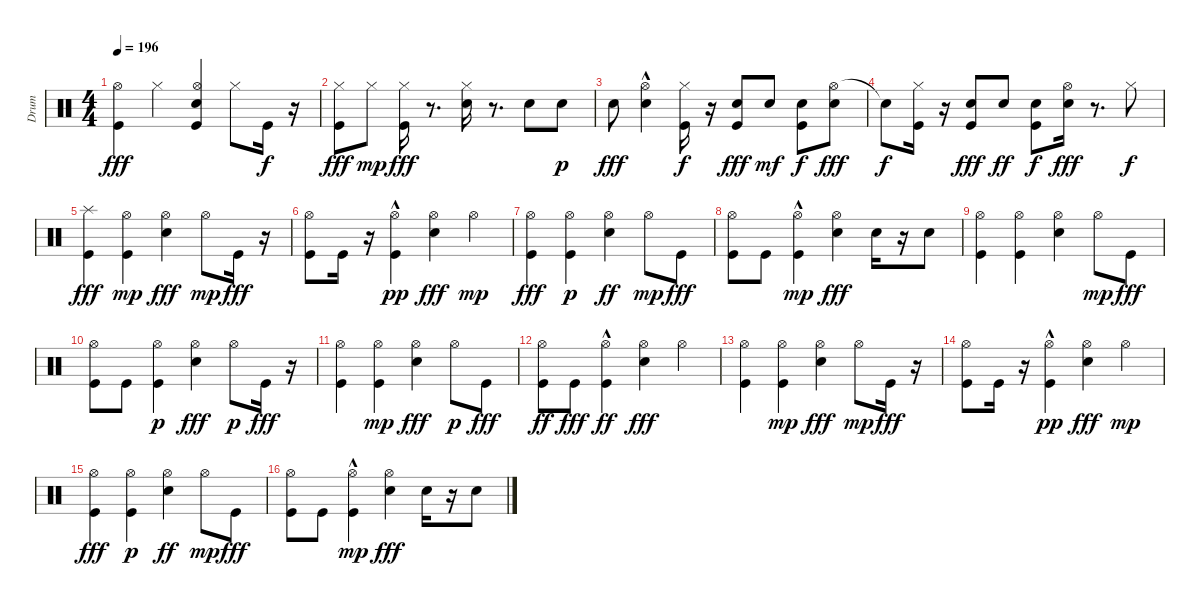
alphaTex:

\track ("Drum" "Drum") {instrument percussion}
\staff {score}
\articulation defaults
\ts (4 4)
\tempo 196
\clef neutral
\ks c
("Kick (hit)" "Hi-Hat (open)").4{dy fff} "Hi-Hat (closed)".4 ("Kick (hit)" "Hi-Hat (open)" "Snare (hit) 2").4 "Hi-Hat (closed)".8 "Kick (hit)".16{dy f} r.16 |
("Kick (hit)" "Hi-Hat (closed)").8{dy fff} "Hi-Hat (closed)".8{dy mp} ("Kick (hit)" "Hi-Hat (closed)").16{dy fff} r.8{d} ("Snare (hit) 2" "Hi-Hat (closed)").16 r.8{d} "Snare (hit) 2".8 "Snare (hit) 2".8{dy p} |
"Snare (hit) 2".8{dy fff} ("Hi-Hat (open)" "Snare (hit) 2"{hac}).4 ("Hi-Hat (closed)" "Kick (hit)").16{dy f} r.16 ("Kick (hit)" "Snare (hit) 2").8{dy fff} "Snare (hit) 2".8{dy mf} ("Kick (hit)" "Snare (hit) 2").8{dy f} ("Hi-Hat (open)" "Snare (hit) 2").8{dy fff} |
"Snare (hit)"{t}.8{dy f} ("Hi-Hat (closed)" "Kick (hit)").16 r.16 ("Kick (hit)" "Snare (hit) 2").8{dy fff} "Snare (hit) 2".8{dy ff} ("Kick (hit)" "Snare (hit) 2").8{dy f} ("Hi-Hat (open)" "Snare (hit) 2").16{dy fff} r.8{d} "Hi-Hat (closed)".8{dy f} |
("Splash (hit)" "Kick (hit)").4{dy fff} ("Kick (hit)" "Hi-Hat (open)").4{dy mp} ("Hi-Hat (open)" "Snare (hit) 2").4{dy fff} "Hi-Hat (open)".8{dy mp} "Kick (hit)".16{dy fff} r.16 |
("Kick (hit)" "Hi-Hat (open)").8 "Kick (hit)".16 r.16 ("Kick (hit)"{hac} "Hi-Hat (open)").4{dy pp} ("Hi-Hat (open)" "Snare (hit) 2").4{dy fff} "Hi-Hat (open)".4{dy mp} |
("Kick (hit)" "Hi-Hat (open)").4{dy fff} ("Kick (hit)" "Hi-Hat (open)").4{dy p} ("Snare (hit) 2" "Hi-Hat (open)").4{dy ff} "Hi-Hat (open)".8{dy mp} "Kick (hit)".8{dy fff} |
("Kick (hit)" "Hi-Hat (open)").8 "Kick (hit)".8 ("Kick (hit)"{hac} "Hi-Hat (open)").4{dy mp} ("Hi-Hat (open)" "Snare (hit) 2").4{dy fff} "Snare (hit) 2".16 r.16 "Snare (hit) 2".8 |
("Kick (hit)" "Hi-Hat (open)").4 ("Kick (hit)" "Hi-Hat (open)").4 ("Hi-Hat (open)" "Snare (hit) 2").4 "Hi-Hat (open)".8{dy mp} "Kick (hit)".8{dy fff} |
("Kick (hit)" "Hi-Hat (open)").8 "Kick (hit)".8 ("Kick (hit)" "Hi-Hat (open)").4{dy p} ("Snare (hit) 2" "Hi-Hat (open)").4{dy fff} "Hi-Hat (open)".8{dy p} "Kick (hit)".16{dy fff} r.16 |
("Kick (hit)" "Hi-Hat (open)").4 ("Kick (hit)" "Hi-Hat (open)").4{dy mp} ("Hi-Hat (open)" "Snare (hit) 2").4{dy fff} "Hi-Hat (open)".8{dy p} "Kick (hit)".8{dy fff} |
("Kick (hit)" "Hi-Hat (open)").8{dy ff} "Kick (hit)".8{dy fff} ("Kick (hit)"{hac} "Hi-Hat (open)").4{dy ff} ("Hi-Hat (open)" "Snare (hit) 2").4{dy fff} "Hi-Hat (open)".4 |
("Kick (hit)" "Hi-Hat (open)").4 ("Kick (hit)" "Hi-Hat (open)").4{dy mp} ("Hi-Hat (open)" "Snare (hit) 2").4{dy fff} "Hi-Hat (open)".8{dy mp} "Kick (hit)".16{dy fff} r.16 |
("Kick (hit)" "Hi-Hat (open)").8 "Kick (hit)".16 r.16 ("Kick (hit)"{hac} "Hi-Hat (open)").4{dy pp} ("Hi-Hat (open)" "Snare (hit) 2").4{dy fff} "Hi-Hat (open)".4{dy mp} |
("Kick (hit)" "Hi-Hat (open)").4{dy fff} ("Kick (hit)" "Hi-Hat (open)").4{dy p} ("Snare (hit) 2" "Hi-Hat (open)").4{dy ff} "Hi-Hat (open)".8{dy mp} "Kick (hit)".8{dy fff} |
("Kick (hit)" "Hi-Hat (open)").8 "Kick (hit)".8 ("Kick (hit)"{hac} "Hi-Hat (open)").4{dy mp} ("Hi-Hat (open)" "Snare (hit) 2").4{dy fff} "Snare (hit) 2".16 r.16 "Snare (hit) 2".8
